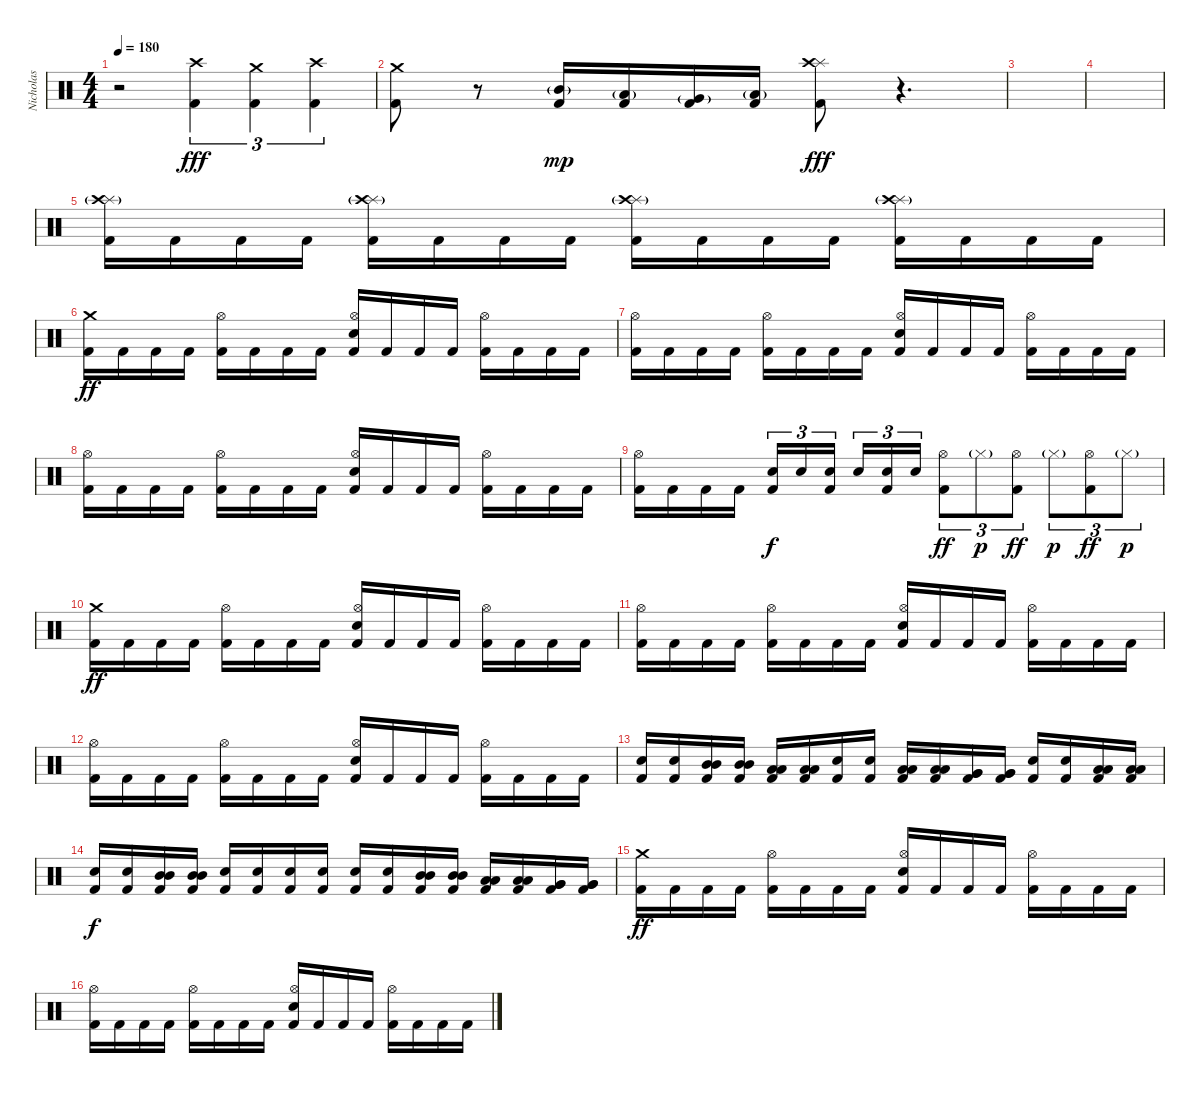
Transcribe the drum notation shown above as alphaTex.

\track ("Nicholas" "Nicholas") {instrument percussion}
\staff {score}
\articulation defaults
\ts (4 4)
\tempo 180
\clef neutral
\ks c
r.2{dy fff} ("Kick (hit) 2" "Crash high (hit)").4{tu (3 2)} ("Kick (hit) 2" "Crash medium (hit)").4{tu (3 2)} ("Kick (hit) 2" "Crash high (hit)").4{tu (3 2)} |
("Kick (hit) 2" "Crash medium (hit)").8 r.8 ("Kick (hit) 2" "Mid Tom (hit)"{g}).16{dy mp} ("Kick (hit) 2" "Low Tom (hit)"{g}).16 ("Kick (hit) 2" "Very Low Tom (hit)"{g}).16 ("Kick (hit) 2" "Low Floor Tom (hit)"{g}).16 ("Kick (hit) 2" "Splash (hit)" "Crash high (hit)").8{dy fff} r.4{d} |
|
|
("Kick (hit) 2" "Splash (hit)" "Crash high (hit)"{g}).16 "Kick (hit) 2".16 "Kick (hit) 2".16 "Kick (hit) 2".16 ("Kick (hit) 2" "Splash (hit)" "Crash high (hit)"{g}).16 "Kick (hit) 2".16 "Kick (hit) 2".16 "Kick (hit) 2".16 ("Kick (hit) 2" "Splash (hit)" "Crash high (hit)"{g}).16 "Kick (hit) 2".16 "Kick (hit) 2".16 "Kick (hit) 2".16 ("Kick (hit) 2" "Splash (hit)" "Crash high (hit)"{g}).16 "Kick (hit) 2".16 "Kick (hit) 2".16 "Kick (hit) 2".16 |
("Kick (hit) 2" "Crash medium (hit)").16{dy ff} "Kick (hit) 2".16 "Kick (hit) 2".16 "Kick (hit) 2".16 ("Kick (hit) 2" "Hi-Hat (open)").16 "Kick (hit) 2".16 "Kick (hit) 2".16 "Kick (hit) 2".16 ("Kick (hit) 2" "Electric Snare (hit)" "Hi-Hat (open)").16 "Kick (hit) 2".16 "Kick (hit) 2".16 "Kick (hit) 2".16 ("Kick (hit) 2" "Hi-Hat (open)").16 "Kick (hit) 2".16 "Kick (hit) 2".16 "Kick (hit) 2".16 |
("Kick (hit) 2" "Hi-Hat (open)").16 "Kick (hit) 2".16 "Kick (hit) 2".16 "Kick (hit) 2".16 ("Kick (hit) 2" "Hi-Hat (open)").16 "Kick (hit) 2".16 "Kick (hit) 2".16 "Kick (hit) 2".16 ("Kick (hit) 2" "Electric Snare (hit)" "Hi-Hat (open)").16 "Kick (hit) 2".16 "Kick (hit) 2".16 "Kick (hit) 2".16 ("Kick (hit) 2" "Hi-Hat (open)").16 "Kick (hit) 2".16 "Kick (hit) 2".16 "Kick (hit) 2".16 |
("Kick (hit) 2" "Hi-Hat (open)").16 "Kick (hit) 2".16 "Kick (hit) 2".16 "Kick (hit) 2".16 ("Kick (hit) 2" "Hi-Hat (open)").16 "Kick (hit) 2".16 "Kick (hit) 2".16 "Kick (hit) 2".16 ("Kick (hit) 2" "Electric Snare (hit)" "Hi-Hat (open)").16 "Kick (hit) 2".16 "Kick (hit) 2".16 "Kick (hit) 2".16 ("Kick (hit) 2" "Hi-Hat (open)").16 "Kick (hit) 2".16 "Kick (hit) 2".16 "Kick (hit) 2".16 |
("Kick (hit) 2" "Hi-Hat (open)").16 "Kick (hit) 2".16 "Kick (hit) 2".16 "Kick (hit) 2".16 ("Kick (hit) 2" "Electric Snare (hit)").16{tu (3 2) dy f} "Electric Snare (hit)".16{tu (3 2)} ("Kick (hit) 2" "Electric Snare (hit)").16{tu (3 2) beam splitsecondary} "Electric Snare (hit)".16{tu (3 2)} ("Kick (hit) 2" "Electric Snare (hit)").16{tu (3 2)} "Electric Snare (hit)".16{tu (3 2)} ("Kick (hit) 2" "Hi-Hat (open)").8{tu (3 2) dy ff} "Hi-Hat (closed)"{g}.8{tu (3 2) dy p} ("Kick (hit) 2" "Hi-Hat (open)").8{tu (3 2) dy ff} "Hi-Hat (closed)"{g}.8{tu (3 2) dy p} ("Kick (hit) 2" "Hi-Hat (open)").8{tu (3 2) dy ff} "Hi-Hat (closed)"{g}.8{tu (3 2) dy p} |
("Kick (hit) 2" "Crash medium (hit)").16{dy ff} "Kick (hit) 2".16 "Kick (hit) 2".16 "Kick (hit) 2".16 ("Kick (hit) 2" "Hi-Hat (open)").16 "Kick (hit) 2".16 "Kick (hit) 2".16 "Kick (hit) 2".16 ("Kick (hit) 2" "Electric Snare (hit)" "Hi-Hat (open)").16 "Kick (hit) 2".16 "Kick (hit) 2".16 "Kick (hit) 2".16 ("Kick (hit) 2" "Hi-Hat (open)").16 "Kick (hit) 2".16 "Kick (hit) 2".16 "Kick (hit) 2".16 |
("Kick (hit) 2" "Hi-Hat (open)").16 "Kick (hit) 2".16 "Kick (hit) 2".16 "Kick (hit) 2".16 ("Kick (hit) 2" "Hi-Hat (open)").16 "Kick (hit) 2".16 "Kick (hit) 2".16 "Kick (hit) 2".16 ("Kick (hit) 2" "Electric Snare (hit)" "Hi-Hat (open)").16 "Kick (hit) 2".16 "Kick (hit) 2".16 "Kick (hit) 2".16 ("Kick (hit) 2" "Hi-Hat (open)").16 "Kick (hit) 2".16 "Kick (hit) 2".16 "Kick (hit) 2".16 |
("Kick (hit) 2" "Hi-Hat (open)").16 "Kick (hit) 2".16 "Kick (hit) 2".16 "Kick (hit) 2".16 ("Kick (hit) 2" "Hi-Hat (open)").16 "Kick (hit) 2".16 "Kick (hit) 2".16 "Kick (hit) 2".16 ("Kick (hit) 2" "Electric Snare (hit)" "Hi-Hat (open)").16 "Kick (hit) 2".16 "Kick (hit) 2".16 "Kick (hit) 2".16 ("Kick (hit) 2" "Hi-Hat (open)").16 "Kick (hit) 2".16 "Kick (hit) 2".16 "Kick (hit) 2".16 |
("Kick (hit) 2" "Electric Snare (hit)").16 ("Kick (hit) 2" "Electric Snare (hit)").16 ("Kick (hit) 2" "Mid Tom (hit)" "Mid Tom (hit)").16 ("Kick (hit) 2" "Mid Tom (hit)" "Mid Tom (hit)").16 ("Kick (hit) 2" "Low Tom (hit)" "Low Tom (hit)").16 ("Kick (hit) 2" "Low Tom (hit)" "Low Tom (hit)").16 ("Kick (hit) 2" "Electric Snare (hit)").16 ("Kick (hit) 2" "Electric Snare (hit)").16 ("Kick (hit) 2" "Low Tom (hit)" "Low Tom (hit)").16 ("Kick (hit) 2" "Low Tom (hit)" "Low Tom (hit)").16 ("Kick (hit) 2" "Very Low Tom (hit)" "Very Low Tom (hit)").16 ("Kick (hit) 2" "Very Low Tom (hit)" "Very Low Tom (hit)").16 ("Kick (hit) 2" "Electric Snare (hit)").16 ("Kick (hit) 2" "Electric Snare (hit)").16 ("Kick (hit) 2" "Low Floor Tom (hit)" "Low Floor Tom (hit)").16 ("Kick (hit) 2" "Low Floor Tom (hit)" "Low Floor Tom (hit)").16 |
("Kick (hit) 2" "Electric Snare (hit)").16{dy f} ("Kick (hit) 2" "Electric Snare (hit)").16 ("Kick (hit) 2" "Mid Tom (hit)" "Mid Tom (hit)").16 ("Kick (hit) 2" "Mid Tom (hit)" "Mid Tom (hit)").16 ("Kick (hit) 2" "Electric Snare (hit)").16 ("Kick (hit) 2" "Electric Snare (hit)").16 ("Kick (hit) 2" "Electric Snare (hit)").16 ("Kick (hit) 2" "Electric Snare (hit)").16 ("Kick (hit) 2" "Electric Snare (hit)").16 ("Kick (hit) 2" "Electric Snare (hit)").16 ("Kick (hit) 2" "Mid Tom (hit)" "Mid Tom (hit)").16 ("Kick (hit) 2" "Mid Tom (hit)" "Mid Tom (hit)").16 ("Kick (hit) 2" "Low Tom (hit)" "Low Tom (hit)").16 ("Kick (hit) 2" "Low Tom (hit)" "Low Tom (hit)").16 ("Kick (hit) 2" "Very Low Tom (hit)" "Very Low Tom (hit)").16 ("Kick (hit) 2" "Very Low Tom (hit)" "Very Low Tom (hit)").16 |
("Kick (hit) 2" "Crash medium (hit)").16{dy ff} "Kick (hit) 2".16 "Kick (hit) 2".16 "Kick (hit) 2".16 ("Kick (hit) 2" "Hi-Hat (open)").16 "Kick (hit) 2".16 "Kick (hit) 2".16 "Kick (hit) 2".16 ("Kick (hit) 2" "Electric Snare (hit)" "Hi-Hat (open)").16 "Kick (hit) 2".16 "Kick (hit) 2".16 "Kick (hit) 2".16 ("Kick (hit) 2" "Hi-Hat (open)").16 "Kick (hit) 2".16 "Kick (hit) 2".16 "Kick (hit) 2".16 |
("Kick (hit) 2" "Hi-Hat (open)").16 "Kick (hit) 2".16 "Kick (hit) 2".16 "Kick (hit) 2".16 ("Kick (hit) 2" "Hi-Hat (open)").16 "Kick (hit) 2".16 "Kick (hit) 2".16 "Kick (hit) 2".16 ("Kick (hit) 2" "Electric Snare (hit)" "Hi-Hat (open)").16 "Kick (hit) 2".16 "Kick (hit) 2".16 "Kick (hit) 2".16 ("Kick (hit) 2" "Hi-Hat (open)").16 "Kick (hit) 2".16 "Kick (hit) 2".16 "Kick (hit) 2".16
